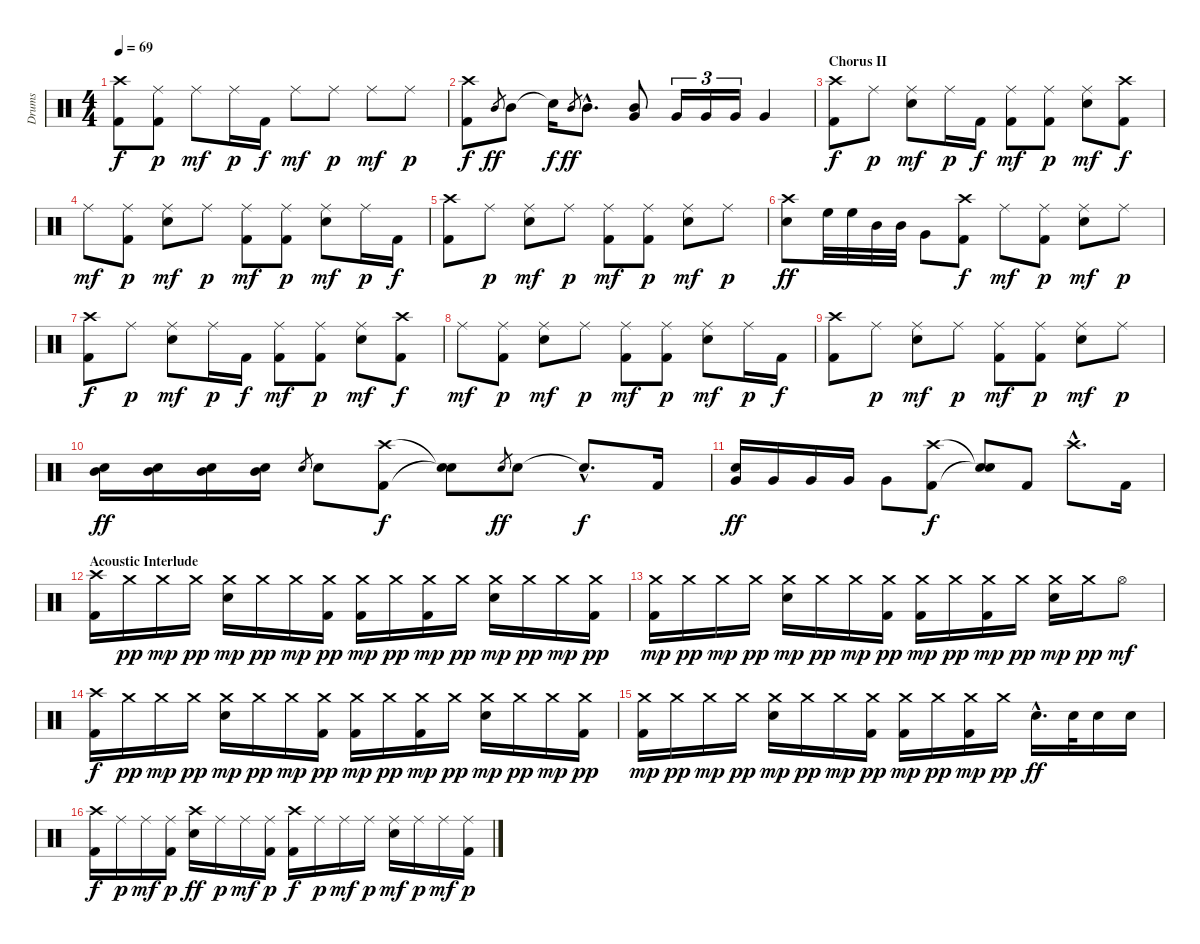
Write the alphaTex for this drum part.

\track ("Drums" "Drums") {instrument percussion}
\staff {score}
\articulation defaults
\ts (4 4)
\tempo 69
\clef neutral
\ks c
("Crash high (hit)" "Kick (hit) 2").8{dy f} ("Ride (middle)" "Kick (hit) 2").8{dy p} "Ride (middle)".8{dy mf} "Ride (middle)".16{dy p} "Kick (hit) 2".16{dy f} "Ride (middle)".8{dy mf} "Ride (middle)".8{dy p} "Ride (middle)".8{dy mf} "Ride (middle)".8{dy p} |
("Crash high (hit)" "Kick (hit) 2").8{dy f} "Mid Tom (hit)".8{gr dy ff} "Mid Tom (hit)".8 "Snare (hit)"{t}.16{dy f} "Mid Tom (hit)".8{gr dy ff} "Mid Tom (hit)"{hac}.8{d} ("Mid Tom (hit)" "Very Low Tom (hit)").8 "Very Low Tom (hit)".16{tu (3 2)} "Very Low Tom (hit)".16{tu (3 2)} "Very Low Tom (hit)".16{tu (3 2)} "Very Low Tom (hit)".4 |
\section ("" "Chorus II")
("Crash high (hit)" "Kick (hit) 2").8{dy f} "Ride (middle)".8{dy p} ("Snare (hit) 2" "Ride (middle)").8{dy mf} "Ride (middle)".16{dy p} "Kick (hit) 2".16{dy f} ("Ride (middle)" "Kick (hit) 2").8{dy mf} ("Kick (hit) 2" "Ride (middle)").8{dy p} ("Snare (hit) 2" "Ride (middle)").8{dy mf} ("Kick (hit) 2" "Crash high (hit)").8{dy f} |
"Ride (middle)".8{dy mf} ("Kick (hit) 2" "Ride (middle)").8{dy p} ("Snare (hit) 2" "Ride (middle)").8{dy mf} "Ride (middle)".8{dy p} ("Ride (middle)" "Kick (hit) 2").8{dy mf} ("Kick (hit) 2" "Ride (middle)").8{dy p} ("Snare (hit) 2" "Ride (middle)").8{dy mf} "Ride (middle)".16{dy p} "Kick (hit) 2".16{dy f} |
("Crash high (hit)" "Kick (hit) 2").8 "Ride (middle)".8{dy p} ("Snare (hit) 2" "Ride (middle)").8{dy mf} "Ride (middle)".8{dy p} ("Ride (middle)" "Kick (hit) 2").8{dy mf} ("Kick (hit) 2" "Ride (middle)").8{dy p} ("Snare (hit) 2" "Ride (middle)").8{dy mf} "Ride (middle)".8{dy p} |
("Snare (hit) 2" "Crash high (hit)").8{dy ff} "High Floor Tom (hit)".32 "High Floor Tom (hit)".32 "Mid Tom (hit)".32 "Mid Tom (hit)".32 "Very Low Tom (hit)".8 ("Crash high (hit)" "Kick (hit) 2").8{dy f} "Ride (middle)".8{dy mf} ("Kick (hit) 2" "Ride (middle)").8{dy p} ("Snare (hit) 2" "Ride (middle)").8{dy mf} "Ride (middle)".8{dy p} |
("Crash high (hit)" "Kick (hit) 2").8{dy f} "Ride (middle)".8{dy p} ("Snare (hit) 2" "Ride (middle)").8{dy mf} "Ride (middle)".16{dy p} "Kick (hit) 2".16{dy f} ("Ride (middle)" "Kick (hit) 2").8{dy mf} ("Kick (hit) 2" "Ride (middle)").8{dy p} ("Snare (hit) 2" "Ride (middle)").8{dy mf} ("Kick (hit) 2" "Crash high (hit)").8{dy f} |
"Ride (middle)".8{dy mf} ("Kick (hit) 2" "Ride (middle)").8{dy p} ("Snare (hit) 2" "Ride (middle)").8{dy mf} "Ride (middle)".8{dy p} ("Ride (middle)" "Kick (hit) 2").8{dy mf} ("Kick (hit) 2" "Ride (middle)").8{dy p} ("Snare (hit) 2" "Ride (middle)").8{dy mf} "Ride (middle)".16{dy p} "Kick (hit) 2".16{dy f} |
("Crash high (hit)" "Kick (hit) 2").8 "Ride (middle)".8{dy p} ("Snare (hit) 2" "Ride (middle)").8{dy mf} "Ride (middle)".8{dy p} ("Ride (middle)" "Kick (hit) 2").8{dy mf} ("Kick (hit) 2" "Ride (middle)").8{dy p} ("Snare (hit) 2" "Ride (middle)").8{dy mf} "Ride (middle)".8{dy p} |
("Snare (hit) 2" "Mid Tom (hit)").16{dy ff} ("Mid Tom (hit)" "Snare (hit) 2").16 ("Mid Tom (hit)" "Snare (hit) 2").16 ("Mid Tom (hit)" "Snare (hit) 2").16 "Snare (hit) 2".8{gr} "Snare (hit) 2".8 ("Crash high (hit)" "Kick (hit) 2").8{dy f} ("Snare (hit)"{t} "Snare (hit)"{t}).8 "Snare (hit) 2".8{gr dy ff} "Snare (hit) 2".8 "Snare (hit)"{hac t}.8{d dy f} "Kick (hit) 2".16 |
("Very Low Tom (hit)" "Snare (hit) 2").16{dy ff} "Very Low Tom (hit)".16 "Very Low Tom (hit)".16 "Very Low Tom (hit)".16 "Very Low Tom (hit)".8 ("Crash high (hit)" "Kick (hit) 2").8{dy f} ("Snare (hit)"{t} "Snare (hit)"{t}).8 "Kick (hit) 2".8 "Crash high (hit)"{hac}.8{d} "Kick (hit) 2".16 |
\section ("" "Acoustic Interlude")
("Kick (hit) 2" "Crash high (hit)").16 "Crash medium (hit)".16{dy pp} "Crash medium (hit)".16{dy mp} "Crash medium (hit)".16{dy pp} ("Snare (hit) 2" "Crash medium (hit)").16{dy mp} "Crash medium (hit)".16{dy pp} "Crash medium (hit)".16{dy mp} ("Kick (hit) 2" "Crash medium (hit)").16{dy pp} ("Kick (hit) 2" "Crash medium (hit)").16{dy mp} "Crash medium (hit)".16{dy pp} ("Kick (hit) 2" "Crash medium (hit)").16{dy mp} "Crash medium (hit)".16{dy pp} ("Snare (hit) 2" "Crash medium (hit)").16{dy mp} "Crash medium (hit)".16{dy pp} "Crash medium (hit)".16{dy mp} ("Kick (hit) 2" "Crash medium (hit)").16{dy pp} |
("Kick (hit) 2" "Crash medium (hit)").16{dy mp} "Crash medium (hit)".16{dy pp} "Crash medium (hit)".16{dy mp} "Crash medium (hit)".16{dy pp} ("Snare (hit) 2" "Crash medium (hit)").16{dy mp} "Crash medium (hit)".16{dy pp} "Crash medium (hit)".16{dy mp} ("Kick (hit) 2" "Crash medium (hit)").16{dy pp} ("Kick (hit) 2" "Crash medium (hit)").16{dy mp} "Crash medium (hit)".16{dy pp} ("Kick (hit) 2" "Crash medium (hit)").16{dy mp} "Crash medium (hit)".16{dy pp} ("Snare (hit) 2" "Crash medium (hit)").16{dy mp} "Crash medium (hit)".16{dy pp} "Hi-Hat (open)".8{dy mf} |
("Kick (hit) 2" "Crash high (hit)").16{dy f} "Crash medium (hit)".16{dy pp} "Crash medium (hit)".16{dy mp} "Crash medium (hit)".16{dy pp} ("Snare (hit) 2" "Crash medium (hit)").16{dy mp} "Crash medium (hit)".16{dy pp} "Crash medium (hit)".16{dy mp} ("Kick (hit) 2" "Crash medium (hit)").16{dy pp} ("Kick (hit) 2" "Crash medium (hit)").16{dy mp} "Crash medium (hit)".16{dy pp} ("Kick (hit) 2" "Crash medium (hit)").16{dy mp} "Crash medium (hit)".16{dy pp} ("Snare (hit) 2" "Crash medium (hit)").16{dy mp} "Crash medium (hit)".16{dy pp} "Crash medium (hit)".16{dy mp} ("Kick (hit) 2" "Crash medium (hit)").16{dy pp} |
("Kick (hit) 2" "Crash medium (hit)").16{dy mp} "Crash medium (hit)".16{dy pp} "Crash medium (hit)".16{dy mp} "Crash medium (hit)".16{dy pp} ("Snare (hit) 2" "Crash medium (hit)").16{dy mp} "Crash medium (hit)".16{dy pp} "Crash medium (hit)".16{dy mp} ("Kick (hit) 2" "Crash medium (hit)").16{dy pp} ("Kick (hit) 2" "Crash medium (hit)").16{dy mp} "Crash medium (hit)".16{dy pp} ("Kick (hit) 2" "Crash medium (hit)").16{dy mp} "Crash medium (hit)".16{dy pp} "Snare (hit) 2"{hac}.16{d dy ff} "Snare (hit) 2".32 "Snare (hit) 2".16 "Snare (hit) 2".16 |
("Crash high (hit)" "Kick (hit) 2").16{dy f} "Ride (middle)".16{dy p} "Ride (middle)".16{dy mf} ("Ride (middle)" "Kick (hit) 2").16{dy p} ("Crash high (hit)" "Snare (hit) 2").16{dy ff} "Ride (middle)".16{dy p} "Ride (middle)".16{dy mf} ("Ride (middle)" "Kick (hit) 2").16{dy p} ("Crash high (hit)" "Kick (hit) 2").16{dy f} "Ride (middle)".16{dy p} "Ride (middle)".16{dy mf} "Ride (middle)".16{dy p} ("Snare (hit) 2" "Ride (middle)").16{dy mf} "Ride (middle)".16{dy p} "Ride (middle)".16{dy mf} ("Kick (hit) 2" "Ride (middle)").16{dy p}
